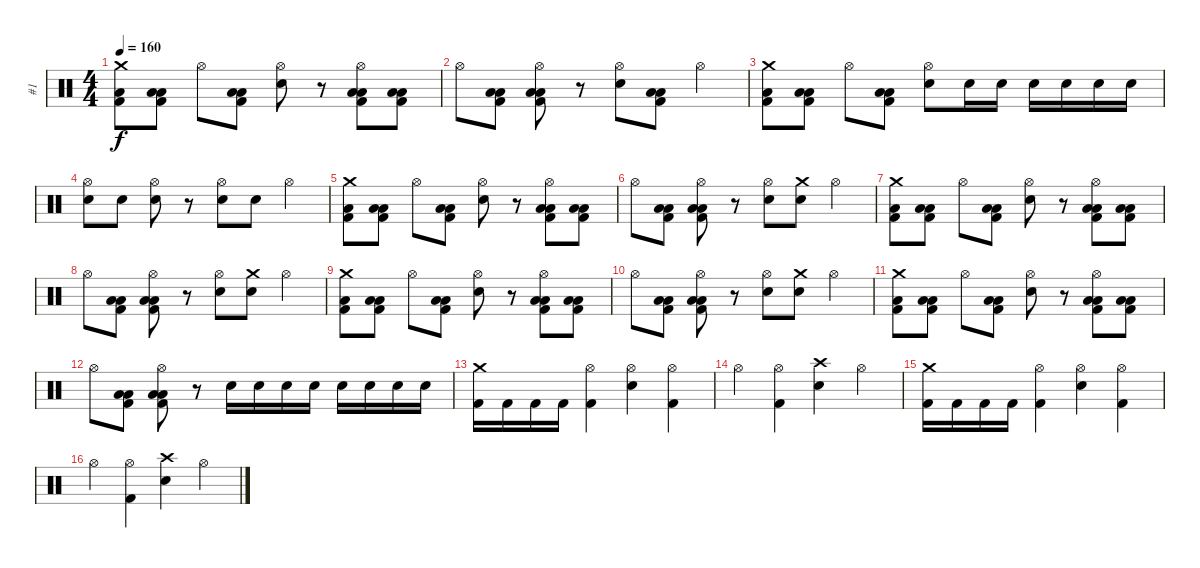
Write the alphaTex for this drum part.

\track ("#1" "#1") {instrument percussion}
\staff {score}
\articulation defaults
\ts (4 4)
\tempo 160
\clef neutral
\ks c
("Low Tom (hit)" "Kick (hit) 2" "Crash medium (hit)").8{dy f} ("Low Tom (hit)" "Kick (hit) 2" "Low Floor Tom (hit)").8 "Hi-Hat (open)".8 ("Low Tom (hit)" "Kick (hit) 2" "Low Floor Tom (hit)").8 ("Hi-Hat (open)" "Electric Snare (hit)").8 r.8 ("Hi-Hat (open)" "Low Tom (hit)" "Kick (hit) 2" "Low Floor Tom (hit)").8 ("Low Tom (hit)" "Kick (hit) 2" "Low Floor Tom (hit)").8 |
"Hi-Hat (open)".8 ("Low Tom (hit)" "Kick (hit) 2" "Low Floor Tom (hit)").8 ("Hi-Hat (open)" "Low Tom (hit)" "Kick (hit) 2" "Low Floor Tom (hit)").8 r.8 ("Hi-Hat (open)" "Electric Snare (hit)").8 ("Low Tom (hit)" "Kick (hit) 2" "Low Floor Tom (hit)").8 "Hi-Hat (open)".4 |
("Low Tom (hit)" "Kick (hit) 2" "Crash medium (hit)").8 ("Low Tom (hit)" "Kick (hit) 2" "Low Floor Tom (hit)").8 "Hi-Hat (open)".8 ("Low Tom (hit)" "Kick (hit) 2" "Low Floor Tom (hit)").8 ("Hi-Hat (open)" "Electric Snare (hit)").8 "Electric Snare (hit)".16 "Electric Snare (hit)".16 "Electric Snare (hit)".16 "Electric Snare (hit)".16 "Electric Snare (hit)".16 "Electric Snare (hit)".16 |
("Hi-Hat (open)" "Electric Snare (hit)").8 "Electric Snare (hit)".8 ("Hi-Hat (open)" "Electric Snare (hit)").8 r.8 ("Hi-Hat (open)" "Electric Snare (hit)").8 "Electric Snare (hit)".8 "Hi-Hat (open)".4 |
("Low Tom (hit)" "Kick (hit) 2" "Crash medium (hit)").8 ("Low Tom (hit)" "Kick (hit) 2" "Low Floor Tom (hit)").8 "Hi-Hat (open)".8 ("Low Tom (hit)" "Kick (hit) 2" "Low Floor Tom (hit)").8 ("Hi-Hat (open)" "Electric Snare (hit)").8 r.8 ("Hi-Hat (open)" "Low Tom (hit)" "Kick (hit) 2" "Low Floor Tom (hit)").8 ("Low Tom (hit)" "Kick (hit) 2" "Low Floor Tom (hit)").8 |
"Hi-Hat (open)".8 ("Low Tom (hit)" "Kick (hit) 2" "Low Floor Tom (hit)").8 ("Hi-Hat (open)" "Low Tom (hit)" "Kick (hit) 2" "Low Floor Tom (hit)").8 r.8 ("Hi-Hat (open)" "Electric Snare (hit)").8 ("Crash medium (hit)" "Electric Snare (hit)").8 "Hi-Hat (open)".4 |
("Low Tom (hit)" "Kick (hit) 2" "Crash medium (hit)").8 ("Low Tom (hit)" "Kick (hit) 2" "Low Floor Tom (hit)").8 "Hi-Hat (open)".8 ("Low Tom (hit)" "Kick (hit) 2" "Low Floor Tom (hit)").8 ("Hi-Hat (open)" "Electric Snare (hit)").8 r.8 ("Hi-Hat (open)" "Low Tom (hit)" "Kick (hit) 2" "Low Floor Tom (hit)").8 ("Low Tom (hit)" "Kick (hit) 2" "Low Floor Tom (hit)").8 |
"Hi-Hat (open)".8 ("Low Tom (hit)" "Kick (hit) 2" "Low Floor Tom (hit)").8 ("Hi-Hat (open)" "Low Tom (hit)" "Kick (hit) 2" "Low Floor Tom (hit)").8 r.8 ("Hi-Hat (open)" "Electric Snare (hit)").8 ("Crash medium (hit)" "Electric Snare (hit)").8 "Hi-Hat (open)".4 |
("Low Tom (hit)" "Kick (hit) 2" "Crash medium (hit)").8 ("Low Tom (hit)" "Kick (hit) 2" "Low Floor Tom (hit)").8 "Hi-Hat (open)".8 ("Low Tom (hit)" "Kick (hit) 2" "Low Floor Tom (hit)").8 ("Hi-Hat (open)" "Electric Snare (hit)").8 r.8 ("Hi-Hat (open)" "Low Tom (hit)" "Kick (hit) 2" "Low Floor Tom (hit)").8 ("Low Tom (hit)" "Kick (hit) 2" "Low Floor Tom (hit)").8 |
"Hi-Hat (open)".8 ("Low Tom (hit)" "Kick (hit) 2" "Low Floor Tom (hit)").8 ("Hi-Hat (open)" "Low Tom (hit)" "Kick (hit) 2" "Low Floor Tom (hit)").8 r.8 ("Hi-Hat (open)" "Electric Snare (hit)").8 ("Crash medium (hit)" "Electric Snare (hit)").8 "Hi-Hat (open)".4 |
("Low Tom (hit)" "Kick (hit) 2" "Crash medium (hit)").8 ("Low Tom (hit)" "Kick (hit) 2" "Low Floor Tom (hit)").8 "Hi-Hat (open)".8 ("Low Tom (hit)" "Kick (hit) 2" "Low Floor Tom (hit)").8 ("Hi-Hat (open)" "Electric Snare (hit)").8 r.8 ("Hi-Hat (open)" "Low Tom (hit)" "Kick (hit) 2" "Low Floor Tom (hit)").8 ("Low Tom (hit)" "Kick (hit) 2" "Low Floor Tom (hit)").8 |
"Hi-Hat (open)".8 ("Low Tom (hit)" "Kick (hit) 2" "Low Floor Tom (hit)").8 ("Hi-Hat (open)" "Low Tom (hit)" "Kick (hit) 2" "Low Floor Tom (hit)").8 r.8 "Electric Snare (hit)".16 "Electric Snare (hit)".16 "Electric Snare (hit)".16 "Electric Snare (hit)".16 "Electric Snare (hit)".16 "Electric Snare (hit)".16 "Electric Snare (hit)".16 "Electric Snare (hit)".16 |
("Kick (hit) 2" "Crash medium (hit)").16 "Kick (hit) 2".16 "Kick (hit) 2".16 "Kick (hit) 2".16 ("Kick (hit) 2" "Hi-Hat (open)").4 ("Electric Snare (hit)" "Hi-Hat (open)").4 ("Kick (hit) 2" "Hi-Hat (open)").4 |
"Hi-Hat (open)".4 ("Kick (hit) 2" "Hi-Hat (open)").4 ("Electric Snare (hit)" "Crash high (hit)").4 "Hi-Hat (open)".4 |
("Kick (hit) 2" "Crash medium (hit)").16 "Kick (hit) 2".16 "Kick (hit) 2".16 "Kick (hit) 2".16 ("Kick (hit) 2" "Hi-Hat (open)").4 ("Electric Snare (hit)" "Hi-Hat (open)").4 ("Kick (hit) 2" "Hi-Hat (open)").4 |
"Hi-Hat (open)".4 ("Kick (hit) 2" "Hi-Hat (open)").4 ("Electric Snare (hit)" "Crash high (hit)").4 "Hi-Hat (open)".4
